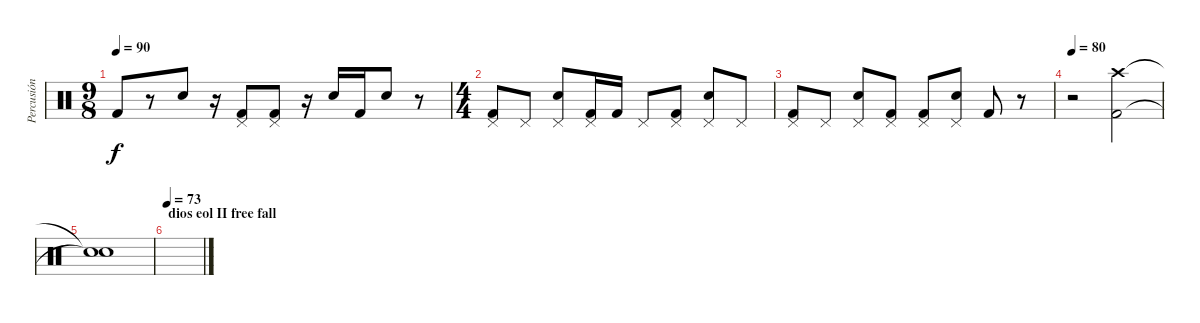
\track ("Percusión" "Percusión") {instrument percussion}
\staff {score}
\articulation defaults
\ts (9 8)
\tempo 90
\clef neutral
\ks c "Kick (hit) 2".8{dy f}
r.8 "Electric Snare (hit)".8 r.16 ("Pedal Hi-Hat (hit)" "Kick (hit) 2").8 ("Pedal Hi-Hat (hit)" "Kick (hit) 2").8 r.16 "Electric Snare (hit)".16 "Kick (hit) 2".16 "Electric Snare (hit)".8 r.8 |
\ts (4 4)
("Pedal Hi-Hat (hit)" "Kick (hit) 2").8 "Pedal Hi-Hat (hit)".8 ("Pedal Hi-Hat (hit)" "Electric Snare (hit)").8 ("Pedal Hi-Hat (hit)" "Kick (hit) 2").16 "Kick (hit) 2".16 "Pedal Hi-Hat (hit)".8 ("Pedal Hi-Hat (hit)" "Kick (hit) 2").8 ("Pedal Hi-Hat (hit)" "Electric Snare (hit)").8 "Pedal Hi-Hat (hit)".8 |
("Pedal Hi-Hat (hit)" "Kick (hit) 2").8 "Pedal Hi-Hat (hit)".8 ("Pedal Hi-Hat (hit)" "Electric Snare (hit)").8 ("Pedal Hi-Hat (hit)" "Kick (hit) 2").8 ("Pedal Hi-Hat (hit)" "Kick (hit) 2").8 ("Pedal Hi-Hat (hit)" "Electric Snare (hit)").8 "Kick (hit) 2".8 r.8 |
\tempo 80
r.2 ("Crash high (hit)" "Kick (hit) 2").2 |
("Snare (hit)"{t} "Snare (hit)"{t}).1 |
\section ("" "dios eol II free fall")
\tempo 73
